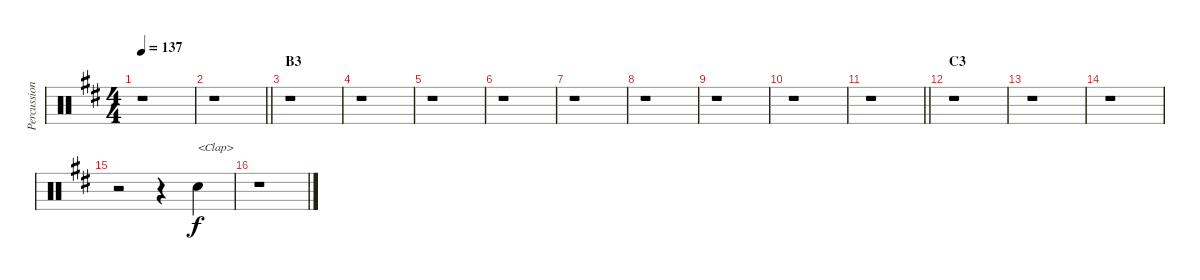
\track ("Percussion" "Percussion") {instrument percussion}
\staff {score}
\articulation defaults
\ts (4 4)
\tempo 137
\clef neutral
\ks d
r.1{dy f} |
\barLineRight lightlight
r.1 |
\section ("" "B3")
r.1 |
r.1 |
r.1 |
r.1 |
r.1 |
r.1 |
r.1 |
r.1 |
\barLineRight lightlight
r.1 |
\section ("" "C3")
r.1 |
r.1 |
r.1 |
r.2 r.4 "Hand Clap (hit)".4{txt "<Clap>"} |
r.1
